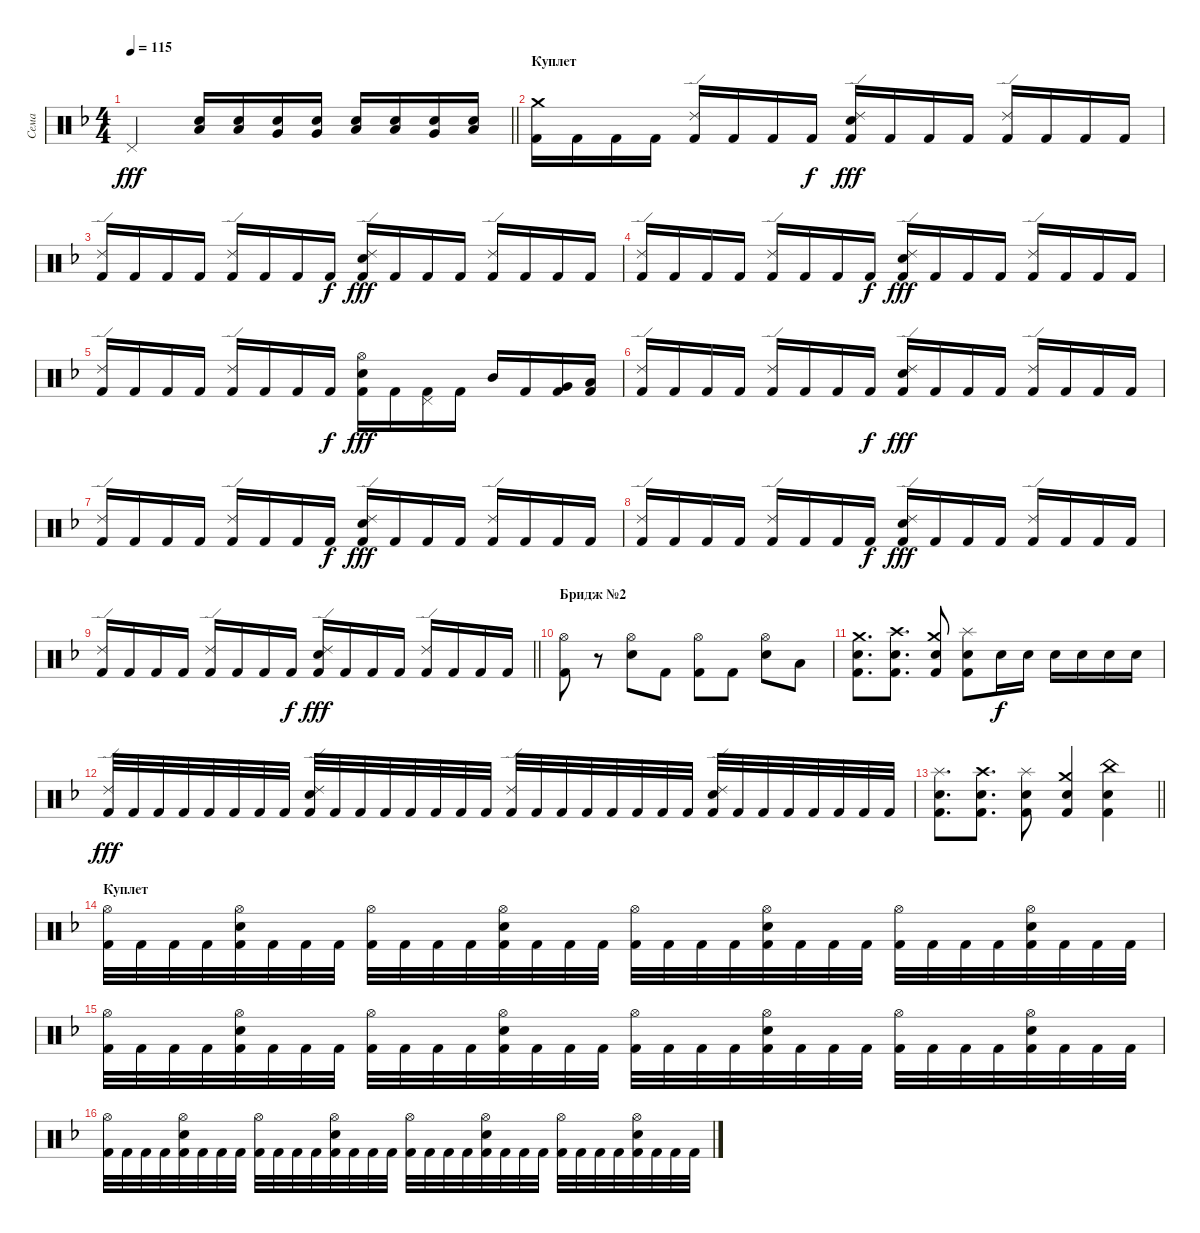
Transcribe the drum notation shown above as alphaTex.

\track ("Сема" "Сема") {instrument percussion}
\staff {score}
\articulation defaults
\ts (4 4)
\tempo 115
\clef neutral
\barLineRight lightlight
\ks dminor "Pedal Hi-Hat (hit)".2{dy fff}
("Electric Snare (hit)" "Low Tom (hit)").16 ("Electric Snare (hit)" "Low Tom (hit)").16 ("Electric Snare (hit)" "Very Low Tom (hit)").16 ("Electric Snare (hit)" "Very Low Tom (hit)").16 ("Electric Snare (hit)" "Low Floor Tom (hit)").16 ("Electric Snare (hit)" "Low Floor Tom (hit)").16 ("Electric Snare (hit)" "Very Low Tom (hit)").16 ("Electric Snare (hit)" "Low Floor Tom (hit)").16 |
\section ("" "Куплет")
("Crash medium (hit)" "Kick (hit) 2").16 "Kick (hit) 2".16 "Kick (hit) 2".16 "Kick (hit) 2".16 ("Ride (edge) 2" "Kick (hit) 2").16 "Kick (hit) 2".16 "Kick (hit) 2".16 "Kick (hit) 2".16{dy f} ("Ride (edge) 2" "Electric Snare (hit)" "Kick (hit) 2").16{dy fff} "Kick (hit) 2".16 "Kick (hit) 2".16 "Kick (hit) 2".16 ("Ride (edge) 2" "Kick (hit) 2").16 "Kick (hit) 2".16 "Kick (hit) 2".16 "Kick (hit) 2".16 |
("Ride (edge) 2" "Kick (hit) 2").16 "Kick (hit) 2".16 "Kick (hit) 2".16 "Kick (hit) 2".16 ("Ride (edge) 2" "Kick (hit) 2").16 "Kick (hit) 2".16 "Kick (hit) 2".16 "Kick (hit) 2".16{dy f} ("Ride (edge) 2" "Electric Snare (hit)" "Kick (hit) 2").16{dy fff} "Kick (hit) 2".16 "Kick (hit) 2".16 "Kick (hit) 2".16 ("Ride (edge) 2" "Kick (hit) 2").16 "Kick (hit) 2".16 "Kick (hit) 2".16 "Kick (hit) 2".16 |
("Ride (edge) 2" "Kick (hit) 2").16 "Kick (hit) 2".16 "Kick (hit) 2".16 "Kick (hit) 2".16 ("Ride (edge) 2" "Kick (hit) 2").16 "Kick (hit) 2".16 "Kick (hit) 2".16 "Kick (hit) 2".16{dy f} ("Ride (edge) 2" "Electric Snare (hit)" "Kick (hit) 2").16{dy fff} "Kick (hit) 2".16 "Kick (hit) 2".16 "Kick (hit) 2".16 ("Ride (edge) 2" "Kick (hit) 2").16 "Kick (hit) 2".16 "Kick (hit) 2".16 "Kick (hit) 2".16 |
("Ride (edge) 2" "Kick (hit) 2").16 "Kick (hit) 2".16 "Kick (hit) 2".16 "Kick (hit) 2".16 ("Ride (edge) 2" "Kick (hit) 2").16 "Kick (hit) 2".16 "Kick (hit) 2".16 "Kick (hit) 2".16{dy f} ("Hi-Hat (open)" "Electric Snare (hit)" "Kick (hit) 2").16{dy fff} "Kick (hit) 2".16 ("Pedal Hi-Hat (hit)" "Kick (hit) 2").16 "Kick (hit) 2".16 "Mid Tom (hit)".16 "Kick (hit) 2".16 ("Very Low Tom (hit)" "Kick (hit) 2").16 ("Low Floor Tom (hit)" "Kick (hit) 2").16 |
("Ride (edge) 2" "Kick (hit) 2").16 "Kick (hit) 2".16 "Kick (hit) 2".16 "Kick (hit) 2".16 ("Ride (edge) 2" "Kick (hit) 2").16 "Kick (hit) 2".16 "Kick (hit) 2".16 "Kick (hit) 2".16{dy f} ("Ride (edge) 2" "Electric Snare (hit)" "Kick (hit) 2").16{dy fff} "Kick (hit) 2".16 "Kick (hit) 2".16 "Kick (hit) 2".16 ("Ride (edge) 2" "Kick (hit) 2").16 "Kick (hit) 2".16 "Kick (hit) 2".16 "Kick (hit) 2".16 |
("Ride (edge) 2" "Kick (hit) 2").16 "Kick (hit) 2".16 "Kick (hit) 2".16 "Kick (hit) 2".16 ("Ride (edge) 2" "Kick (hit) 2").16 "Kick (hit) 2".16 "Kick (hit) 2".16 "Kick (hit) 2".16{dy f} ("Ride (edge) 2" "Electric Snare (hit)" "Kick (hit) 2").16{dy fff} "Kick (hit) 2".16 "Kick (hit) 2".16 "Kick (hit) 2".16 ("Ride (edge) 2" "Kick (hit) 2").16 "Kick (hit) 2".16 "Kick (hit) 2".16 "Kick (hit) 2".16 |
("Ride (edge) 2" "Kick (hit) 2").16 "Kick (hit) 2".16 "Kick (hit) 2".16 "Kick (hit) 2".16 ("Ride (edge) 2" "Kick (hit) 2").16 "Kick (hit) 2".16 "Kick (hit) 2".16 "Kick (hit) 2".16{dy f} ("Ride (edge) 2" "Electric Snare (hit)" "Kick (hit) 2").16{dy fff} "Kick (hit) 2".16 "Kick (hit) 2".16 "Kick (hit) 2".16 ("Ride (edge) 2" "Kick (hit) 2").16 "Kick (hit) 2".16 "Kick (hit) 2".16 "Kick (hit) 2".16 |
\barLineRight lightlight
("Ride (edge) 2" "Kick (hit) 2").16 "Kick (hit) 2".16 "Kick (hit) 2".16 "Kick (hit) 2".16 ("Ride (edge) 2" "Kick (hit) 2").16 "Kick (hit) 2".16 "Kick (hit) 2".16 "Kick (hit) 2".16{dy f} ("Ride (edge) 2" "Electric Snare (hit)" "Kick (hit) 2").16{dy fff} "Kick (hit) 2".16 "Kick (hit) 2".16 "Kick (hit) 2".16 ("Ride (edge) 2" "Kick (hit) 2").16 "Kick (hit) 2".16 "Kick (hit) 2".16 "Kick (hit) 2".16 |
\section ("" "Бридж №2")
("Hi-Hat (open)" "Kick (hit) 2").8 r.8 ("Hi-Hat (open)" "Electric Snare (hit)").8 "Kick (hit) 2".8 ("Hi-Hat (open)" "Kick (hit) 2").8 "Kick (hit) 2".8 ("Hi-Hat (open)" "Electric Snare (hit)").8 "Low Tom (hit)".8 |
("Crash medium (hit)" "Electric Snare (hit)" "Kick (hit) 2").8{d} ("Crash high (hit)" "Electric Snare (hit)" "Kick (hit) 2").8{d} ("Crash medium (hit)" "Electric Snare (hit)" "Kick (hit) 2").8 ("Splash (hit)" "Electric Snare (hit)" "Kick (hit) 2").8 "Electric Snare (hit)".16{dy f} "Electric Snare (hit)".16 "Electric Snare (hit)".16 "Electric Snare (hit)".16 "Electric Snare (hit)".16 "Electric Snare (hit)".16 |
("Ride (edge) 2" "Kick (hit) 2").32{dy fff} "Kick (hit) 2".32 "Kick (hit) 2".32 "Kick (hit) 2".32 "Kick (hit) 2".32 "Kick (hit) 2".32 "Kick (hit) 2".32 "Kick (hit) 2".32 ("Ride (edge) 2" "Electric Snare (hit)" "Kick (hit) 2").32 "Kick (hit) 2".32 "Kick (hit) 2".32 "Kick (hit) 2".32 "Kick (hit) 2".32 "Kick (hit) 2".32 "Kick (hit) 2".32 "Kick (hit) 2".32 ("Ride (edge) 2" "Kick (hit) 2").32 "Kick (hit) 2".32 "Kick (hit) 2".32 "Kick (hit) 2".32 "Kick (hit) 2".32 "Kick (hit) 2".32 "Kick (hit) 2".32 "Kick (hit) 2".32 ("Ride (edge) 2" "Electric Snare (hit)" "Kick (hit) 2").32 "Kick (hit) 2".32 "Kick (hit) 2".32 "Kick (hit) 2".32 "Kick (hit) 2".32 "Kick (hit) 2".32 "Kick (hit) 2".32 "Kick (hit) 2".32 |
\barLineRight lightlight
("Splash (hit)" "Electric Snare (hit)" "Kick (hit) 2").8{d} ("Crash high (hit)" "Electric Snare (hit)" "Kick (hit) 2").8{d} ("Splash (hit)" "Electric Snare (hit)" "Kick (hit) 2").8 ("Crash medium (hit)" "Electric Snare (hit)" "Kick (hit) 2").4 ("China (hit)" "Electric Snare (hit)" "Kick (hit) 2").4 |
\section ("" "Куплет")
("Hi-Hat (open)" "Kick (hit) 2").32 "Kick (hit) 2".32 "Kick (hit) 2".32 "Kick (hit) 2".32 ("Hi-Hat (open)" "Electric Snare (hit)" "Kick (hit) 2").32 "Kick (hit) 2".32 "Kick (hit) 2".32 "Kick (hit) 2".32 ("Hi-Hat (open)" "Kick (hit) 2").32 "Kick (hit) 2".32 "Kick (hit) 2".32 "Kick (hit) 2".32 ("Hi-Hat (open)" "Electric Snare (hit)" "Kick (hit) 2").32 "Kick (hit) 2".32 "Kick (hit) 2".32 "Kick (hit) 2".32 ("Hi-Hat (open)" "Kick (hit) 2").32 "Kick (hit) 2".32 "Kick (hit) 2".32 "Kick (hit) 2".32 ("Hi-Hat (open)" "Electric Snare (hit)" "Kick (hit) 2").32 "Kick (hit) 2".32 "Kick (hit) 2".32 "Kick (hit) 2".32 ("Hi-Hat (open)" "Kick (hit) 2").32 "Kick (hit) 2".32 "Kick (hit) 2".32 "Kick (hit) 2".32 ("Hi-Hat (open)" "Electric Snare (hit)" "Kick (hit) 2").32 "Kick (hit) 2".32 "Kick (hit) 2".32 "Kick (hit) 2".32 |
("Hi-Hat (open)" "Kick (hit) 2").32 "Kick (hit) 2".32 "Kick (hit) 2".32 "Kick (hit) 2".32 ("Hi-Hat (open)" "Electric Snare (hit)" "Kick (hit) 2").32 "Kick (hit) 2".32 "Kick (hit) 2".32 "Kick (hit) 2".32 ("Hi-Hat (open)" "Kick (hit) 2").32 "Kick (hit) 2".32 "Kick (hit) 2".32 "Kick (hit) 2".32 ("Hi-Hat (open)" "Electric Snare (hit)" "Kick (hit) 2").32 "Kick (hit) 2".32 "Kick (hit) 2".32 "Kick (hit) 2".32 ("Hi-Hat (open)" "Kick (hit) 2").32 "Kick (hit) 2".32 "Kick (hit) 2".32 "Kick (hit) 2".32 ("Hi-Hat (open)" "Electric Snare (hit)" "Kick (hit) 2").32 "Kick (hit) 2".32 "Kick (hit) 2".32 "Kick (hit) 2".32 ("Hi-Hat (open)" "Kick (hit) 2").32 "Kick (hit) 2".32 "Kick (hit) 2".32 "Kick (hit) 2".32 ("Hi-Hat (open)" "Electric Snare (hit)" "Kick (hit) 2").32 "Kick (hit) 2".32 "Kick (hit) 2".32 "Kick (hit) 2".32 |
("Hi-Hat (open)" "Kick (hit) 2").32 "Kick (hit) 2".32 "Kick (hit) 2".32 "Kick (hit) 2".32 ("Hi-Hat (open)" "Electric Snare (hit)" "Kick (hit) 2").32 "Kick (hit) 2".32 "Kick (hit) 2".32 "Kick (hit) 2".32 ("Hi-Hat (open)" "Kick (hit) 2").32 "Kick (hit) 2".32 "Kick (hit) 2".32 "Kick (hit) 2".32 ("Hi-Hat (open)" "Electric Snare (hit)" "Kick (hit) 2").32 "Kick (hit) 2".32 "Kick (hit) 2".32 "Kick (hit) 2".32 ("Hi-Hat (open)" "Kick (hit) 2").32 "Kick (hit) 2".32 "Kick (hit) 2".32 "Kick (hit) 2".32 ("Hi-Hat (open)" "Electric Snare (hit)" "Kick (hit) 2").32 "Kick (hit) 2".32 "Kick (hit) 2".32 "Kick (hit) 2".32 ("Hi-Hat (open)" "Kick (hit) 2").32 "Kick (hit) 2".32 "Kick (hit) 2".32 "Kick (hit) 2".32 ("Hi-Hat (open)" "Electric Snare (hit)" "Kick (hit) 2").32 "Kick (hit) 2".32 "Kick (hit) 2".32 "Kick (hit) 2".32
